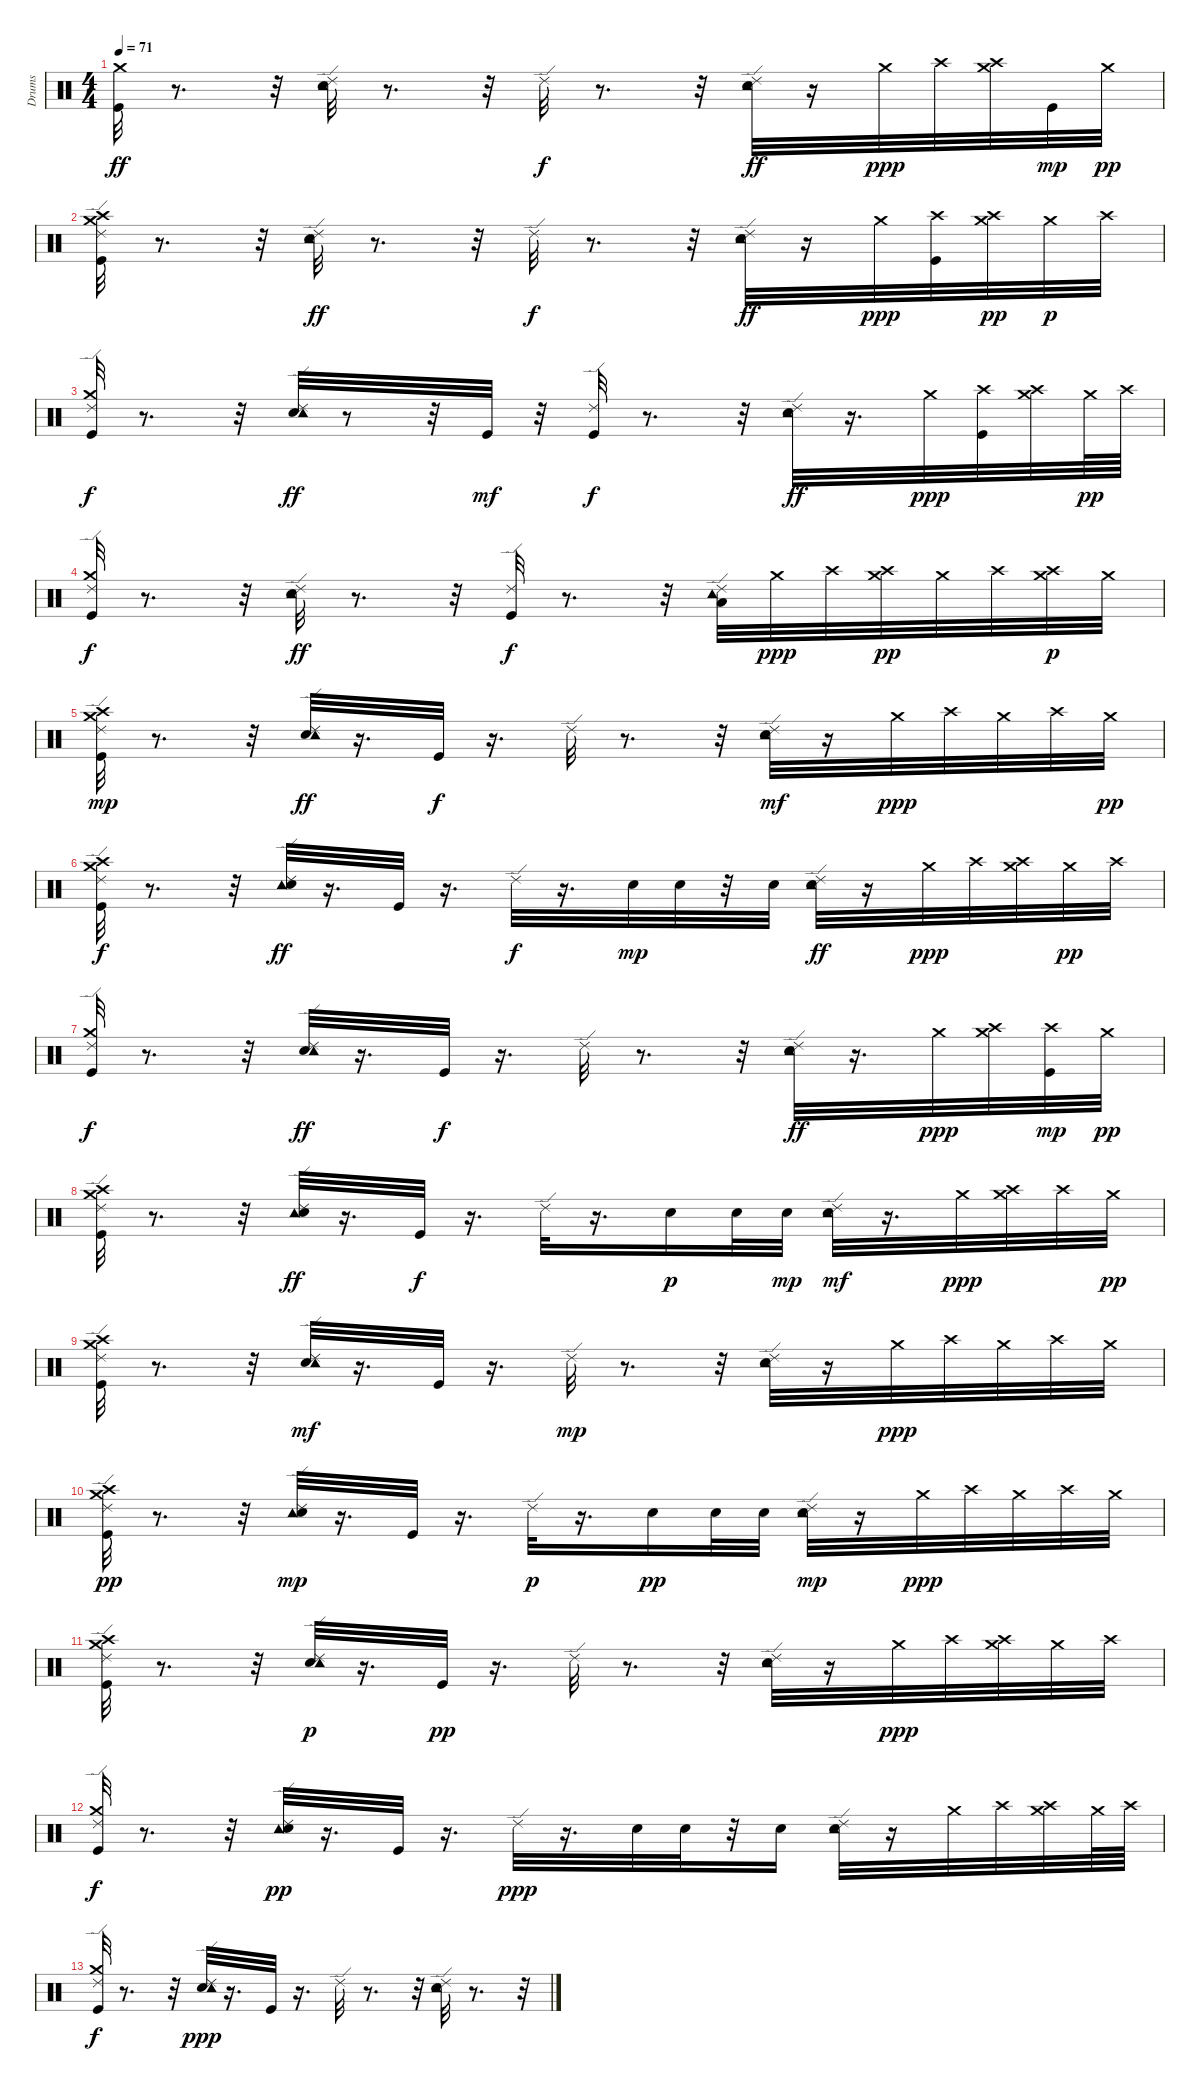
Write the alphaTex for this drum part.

\track ("Drums" "Drums") {instrument percussion}
\staff {score}
\articulation defaults
\ts (4 4)
\tempo 71
\clef neutral
\ks c
("Kick (hit)" "Crash medium (hit)").32{dy ff} r.8{d} r.32 ("Ride (edge) 2" "Snare (hit) 2" "Tambourine (hit)").32 r.8{d} r.32 "Ride (edge) 2".32{dy f} r.8{d} r.32 ("Tambourine (hit)" "Snare (hit) 2" "Ride (edge) 2").32{dy ff} r.16 "Crash medium (hit)".32{dy ppp} "Crash high (hit)".32 ("Crash medium (hit)" "Crash high (hit)").32 "Kick (hit)".32{dy mp} "Crash medium (hit)".32{dy pp} |
("Kick (hit)" "Ride (edge) 2" "Crash medium (hit)" "Crash high (hit)").32 r.8{d} r.32 ("Tambourine (hit)" "Snare (hit) 2" "Ride (edge) 2").32{dy ff} r.8{d} r.32 "Ride (edge) 2".32{dy f} r.8{d} r.32 ("Tambourine (hit)" "Snare (hit) 2" "Ride (edge) 2").32{dy ff} r.16 "Crash medium (hit)".32{dy ppp} ("Kick (hit)" "Crash high (hit)").32 ("Crash medium (hit)" "Crash high (hit)").32{dy pp} "Crash medium (hit)".32{dy p} "Crash high (hit)".32 |
("Ride (edge) 2" "Kick (hit)" "Crash medium (hit)").32{dy f} r.8{d} r.32 ("Snare (hit) 2" "Ride (edge) 2" "Tambourine (hit)").32{dy ff} r.8 r.32 "Kick (hit)".32{dy mf} r.32 ("Ride (edge) 2" "Kick (hit)").32{dy f} r.8{d} r.32 ("Snare (hit) 2" "Tambourine (hit)" "Ride (edge) 2").32{dy ff} r.16{d} "Crash medium (hit)".32{dy ppp} ("Kick (hit)" "Crash high (hit)").32 ("Crash medium (hit)" "Crash high (hit)").32 "Crash medium (hit)".64{dy pp} "Crash high (hit)".64 |
("Ride (edge) 2" "Kick (hit)" "Crash medium (hit)").32{dy f} r.8{d} r.32 ("Tambourine (hit)" "Snare (hit) 2" "Ride (edge) 2").32{dy ff} r.8{d} r.32 ("Ride (edge) 2" "Kick (hit)").32{dy f} r.8{d} r.32 ("Tambourine (hit)" "Low Tom (hit)" "Ride (edge) 2").32 "Crash medium (hit)".32{dy ppp} "Crash high (hit)".32 ("Crash medium (hit)" "Crash high (hit)").32{dy pp} "Crash medium (hit)".32 "Crash high (hit)".32 ("Crash medium (hit)" "Crash high (hit)").32{dy p} "Crash medium (hit)".32 |
("Kick (hit)" "Ride (edge) 2" "Crash medium (hit)" "Crash high (hit)").32{dy mp} r.8{d} r.32 ("Snare (hit) 2" "Tambourine (hit)" "Ride (edge) 2").32{dy ff} r.16{d} "Kick (hit)".32{dy f} r.16{d} "Ride (edge) 2".32 r.8{d} r.32 ("Tambourine (hit)" "Snare (hit) 2" "Ride (edge) 2").32{dy mf} r.16 "Crash medium (hit)".32{dy ppp} "Crash high (hit)".32 "Crash medium (hit)".32 "Crash high (hit)".32 "Crash medium (hit)".32{dy pp} |
("Crash high (hit)" "Kick (hit)" "Ride (edge) 2" "Crash medium (hit)").32{dy f} r.8{d} r.32 ("Ride (edge) 2" "Tambourine (hit)" "Snare (hit) 2").32{dy ff} r.16{d} "Kick (hit)".32 r.16{d} "Ride (edge) 2".32{dy f} r.16{d} "Snare (hit) 2".32{dy mp} "Snare (hit) 2".32 r.32 "Snare (hit) 2".32 ("Ride (edge) 2" "Tambourine (hit)" "Snare (hit) 2").32{dy ff} r.16 "Crash medium (hit)".32{dy ppp} "Crash high (hit)".32 ("Crash medium (hit)" "Crash high (hit)").32 "Crash medium (hit)".32{dy pp} "Crash high (hit)".32 |
("Kick (hit)" "Ride (edge) 2" "Crash medium (hit)").32{dy f} r.8{d} r.32 ("Snare (hit) 2" "Ride (edge) 2" "Tambourine (hit)").32{dy ff} r.16{d} "Kick (hit)".32{dy f} r.16{d} "Ride (edge) 2".32 r.8{d} r.32 ("Tambourine (hit)" "Snare (hit) 2" "Ride (edge) 2").32{dy ff} r.16{d} "Crash medium (hit)".32{dy ppp} ("Crash high (hit)" "Crash medium (hit)").32 ("Crash high (hit)" "Kick (hit)").32{dy mp} "Crash medium (hit)".32{dy pp} |
("Ride (edge) 2" "Kick (hit)" "Crash medium (hit)" "Crash high (hit)").32 r.8{d} r.32 ("Ride (edge) 2" "Tambourine (hit)" "Snare (hit) 2").32{dy ff} r.16{d} "Kick (hit)".32{dy f} r.16{d} "Ride (edge) 2".32 r.16{d} "Snare (hit) 2".16{dy p} "Snare (hit) 2".32 "Snare (hit) 2".32{dy mp} ("Tambourine (hit)" "Snare (hit) 2" "Ride (edge) 2").32{dy mf} r.16{d} "Crash medium (hit)".32{dy ppp} ("Crash high (hit)" "Crash medium (hit)").32 "Crash high (hit)".32 "Crash medium (hit)".32{dy pp} |
("Kick (hit)" "Ride (edge) 2" "Crash medium (hit)" "Crash high (hit)").32 r.8{d} r.32 ("Ride (edge) 2" "Snare (hit) 2" "Tambourine (hit)").32{dy mf} r.16{d} "Kick (hit)".32 r.16{d} "Ride (edge) 2".32{dy mp} r.8{d} r.32 ("Tambourine (hit)" "Snare (hit) 2" "Ride (edge) 2").32 r.16 "Crash medium (hit)".32{dy ppp} "Crash high (hit)".32 "Crash medium (hit)".32 "Crash high (hit)".32 "Crash medium (hit)".32 |
("Kick (hit)" "Ride (edge) 2" "Crash medium (hit)" "Crash high (hit)").32{dy pp} r.8{d} r.32 ("Tambourine (hit)" "Snare (hit) 2" "Ride (edge) 2").32{dy mp} r.16{d} "Kick (hit)".32 r.16{d} "Ride (edge) 2".32{dy p} r.16{d} "Snare (hit) 2".16{dy pp} "Snare (hit) 2".32 "Snare (hit) 2".32 ("Ride (edge) 2" "Tambourine (hit)" "Snare (hit) 2").32{dy mp} r.16 "Crash medium (hit)".32{dy ppp} "Crash high (hit)".32 "Crash medium (hit)".32 "Crash high (hit)".32 "Crash medium (hit)".32 |
("Kick (hit)" "Ride (edge) 2" "Crash medium (hit)" "Crash high (hit)").32 r.8{d} r.32 ("Snare (hit) 2" "Ride (edge) 2" "Tambourine (hit)").32{dy p} r.16{d} "Kick (hit)".32{dy pp} r.16{d} "Ride (edge) 2".32 r.8{d} r.32 ("Snare (hit) 2" "Tambourine (hit)" "Ride (edge) 2").32 r.16 "Crash medium (hit)".32{dy ppp} "Crash high (hit)".32 ("Crash medium (hit)" "Crash high (hit)").32 "Crash medium (hit)".32 "Crash high (hit)".32 |
("Kick (hit)" "Ride (edge) 2" "Crash medium (hit)").32{dy f} r.8{d} r.32 ("Tambourine (hit)" "Snare (hit) 2" "Ride (edge) 2").32{dy pp} r.16{d} "Kick (hit)".32 r.16{d} "Ride (edge) 2".32{dy ppp} r.16{d} "Snare (hit) 2".32 "Snare (hit) 2".32 r.32 "Snare (hit) 2".16 ("Tambourine (hit)" "Ride (edge) 2" "Snare (hit) 2").32 r.16 "Crash medium (hit)".32 "Crash high (hit)".32 ("Crash medium (hit)" "Crash high (hit)").32 "Crash medium (hit)".64 "Crash high (hit)".64 |
("Kick (hit)" "Ride (edge) 2" "Crash medium (hit)").32{dy f} r.8{d} r.32 ("Ride (edge) 2" "Snare (hit) 2" "Tambourine (hit)").32{dy ppp} r.16{d} "Kick (hit)".32 r.16{d} "Ride (edge) 2".32 r.8{d} r.32 ("Tambourine (hit)" "Snare (hit) 2" "Ride (edge) 2").32 r.8{d} r.32
